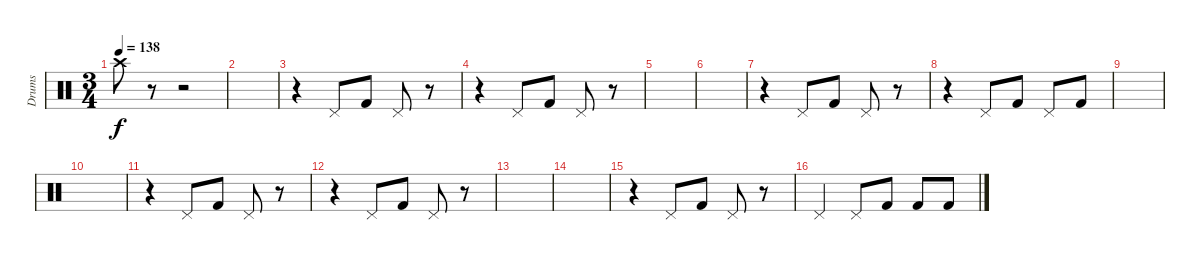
\track ("Drums" "Drums") {instrument percussion}
\staff {score}
\articulation defaults
\ts (3 4)
\tempo 138
\clef neutral
\ks c "Crash high (hit)".8{dy f}
r.8 r.2 |
|
r.4 "Pedal Hi-Hat (hit)".8 "Kick (hit) 2".8 "Pedal Hi-Hat (hit)".8 r.8 |
r.4 "Pedal Hi-Hat (hit)".8 "Kick (hit) 2".8 "Pedal Hi-Hat (hit)".8 r.8 |
|
|
r.4 "Pedal Hi-Hat (hit)".8 "Kick (hit) 2".8 "Pedal Hi-Hat (hit)".8 r.8 |
r.4 "Pedal Hi-Hat (hit)".8 "Kick (hit) 2".8 "Pedal Hi-Hat (hit)".8 "Kick (hit) 2".8 |
|
|
r.4 "Pedal Hi-Hat (hit)".8 "Kick (hit) 2".8 "Pedal Hi-Hat (hit)".8 r.8 |
r.4 "Pedal Hi-Hat (hit)".8 "Kick (hit) 2".8 "Pedal Hi-Hat (hit)".8 r.8 |
|
|
r.4 "Pedal Hi-Hat (hit)".8 "Kick (hit) 2".8 "Pedal Hi-Hat (hit)".8 r.8 |
"Pedal Hi-Hat (hit)".4 "Pedal Hi-Hat (hit)".8 "Kick (hit) 2".8 "Kick (hit) 2".8 "Kick (hit) 2".8
